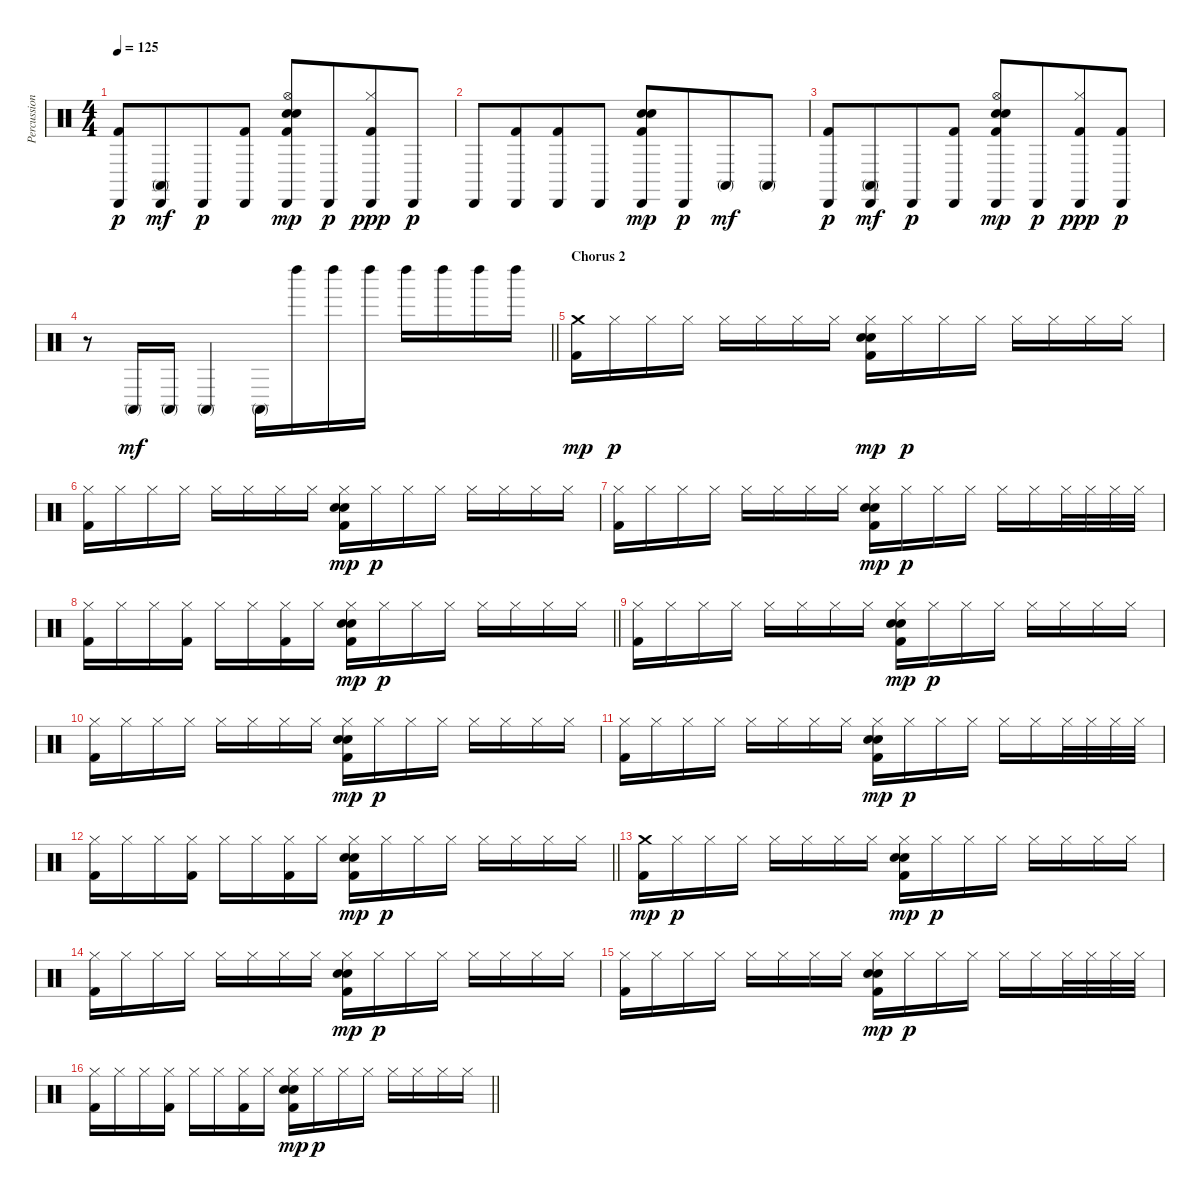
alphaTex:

\track ("Percussion" "Percussion") {instrument percussion}
\staff {score}
\articulation defaults
\ts (4 4)
\tempo 125
\clef neutral
\ks c
("Cabasa (hit)" "Kick (hit) 2").8{dy p} ("Cabasa (hit)" "Conga high (mute)").8{dy mf beam merge} "Cabasa (hit)".8{dy p} ("Cabasa (hit)" "Kick (hit) 2").8 ("Cabasa (hit)" "Hi-Hat (open)" "Hand Clap (hit)" "Electric Snare (hit)" "Kick (hit) 2").8{dy mp} "Cabasa (hit)".8{dy p beam merge} ("Cabasa (hit)" "Hi-Hat (closed)" "Kick (hit) 2").8{dy ppp} "Cabasa (hit)".8{dy p} |
"Cabasa (hit)".8 ("Cabasa (hit)" "Kick (hit) 2").8{beam merge} ("Cabasa (hit)" "Kick (hit) 2").8 "Cabasa (hit)".8 ("Cabasa (hit)" "Hand Clap (hit)" "Electric Snare (hit)" "Kick (hit) 2").8{dy mp} "Cabasa (hit)".8{dy p beam merge} "Conga high (mute)".8{dy mf} "Conga high (mute)".8 |
("Cabasa (hit)" "Kick (hit) 2").8{dy p} ("Cabasa (hit)" "Conga high (mute)").8{dy mf beam merge} "Cabasa (hit)".8{dy p} ("Cabasa (hit)" "Kick (hit) 2").8 ("Cabasa (hit)" "Hi-Hat (open)" "Hand Clap (hit)" "Electric Snare (hit)" "Kick (hit) 2").8{dy mp} "Cabasa (hit)".8{dy p beam merge} ("Cabasa (hit)" "Hi-Hat (closed)" "Kick (hit) 2").8{dy ppp} ("Cabasa (hit)" "Kick (hit) 2").8{dy p} |
\barLineRight lightlight
r.8 "Conga high (mute)".16{dy mf} "Conga high (mute)".16 "Conga high (mute)".4 "Conga high (mute)".16 "Left Maraca (hit)".16 "Left Maraca (hit)".16 "Left Maraca (hit)".16 "Left Maraca (hit)".16 "Left Maraca (hit)".16 "Left Maraca (hit)".16 "Left Maraca (hit)".16 |
\section ("" "Chorus 2")
("Crash medium (hit)" "Kick (hit) 2").16{dy mp} "Hi-Hat (closed)".16{dy p} "Hi-Hat (closed)".16 "Hi-Hat (closed)".16 "Hi-Hat (closed)".16 "Hi-Hat (closed)".16 "Hi-Hat (closed)".16 "Hi-Hat (closed)".16 ("Hi-Hat (closed)" "Hand Clap (hit)" "Electric Snare (hit)" "Kick (hit) 2").16{dy mp} "Hi-Hat (closed)".16{dy p} "Hi-Hat (closed)".16 "Hi-Hat (closed)".16 "Hi-Hat (closed)".16 "Hi-Hat (closed)".16 "Hi-Hat (closed)".16 "Hi-Hat (closed)".16 |
("Hi-Hat (closed)" "Kick (hit) 2").16 "Hi-Hat (closed)".16 "Hi-Hat (closed)".16 "Hi-Hat (closed)".16 "Hi-Hat (closed)".16 "Hi-Hat (closed)".16 "Hi-Hat (closed)".16 "Hi-Hat (closed)".16 ("Hi-Hat (closed)" "Hand Clap (hit)" "Electric Snare (hit)" "Kick (hit) 2").16{dy mp} "Hi-Hat (closed)".16{dy p} "Hi-Hat (closed)".16 "Hi-Hat (closed)".16 "Hi-Hat (closed)".16 "Hi-Hat (closed)".16 "Hi-Hat (closed)".16 "Hi-Hat (closed)".16 |
("Hi-Hat (closed)" "Kick (hit) 2").16 "Hi-Hat (closed)".16 "Hi-Hat (closed)".16 "Hi-Hat (closed)".16 "Hi-Hat (closed)".16 "Hi-Hat (closed)".16 "Hi-Hat (closed)".16 "Hi-Hat (closed)".16 ("Hi-Hat (closed)" "Hand Clap (hit)" "Electric Snare (hit)" "Kick (hit) 2").16{dy mp} "Hi-Hat (closed)".16{dy p} "Hi-Hat (closed)".16 "Hi-Hat (closed)".16 "Hi-Hat (closed)".16 "Hi-Hat (closed)".16 "Hi-Hat (closed)".32 "Hi-Hat (closed)".32 "Hi-Hat (closed)".32 "Hi-Hat (closed)".32 |
\barLineRight lightlight
("Hi-Hat (closed)" "Kick (hit) 2").16 "Hi-Hat (closed)".16 "Hi-Hat (closed)".16 ("Hi-Hat (closed)" "Kick (hit) 2").16 "Hi-Hat (closed)".16 "Hi-Hat (closed)".16 ("Hi-Hat (closed)" "Kick (hit) 2").16 "Hi-Hat (closed)".16 ("Hi-Hat (closed)" "Hand Clap (hit)" "Electric Snare (hit)" "Kick (hit) 2").16{dy mp} "Hi-Hat (closed)".16{dy p} "Hi-Hat (closed)".16 "Hi-Hat (closed)".16 "Hi-Hat (closed)".16 "Hi-Hat (closed)".16 "Hi-Hat (closed)".16 "Hi-Hat (closed)".16 |
("Hi-Hat (closed)" "Kick (hit) 2").16 "Hi-Hat (closed)".16 "Hi-Hat (closed)".16 "Hi-Hat (closed)".16 "Hi-Hat (closed)".16 "Hi-Hat (closed)".16 "Hi-Hat (closed)".16 "Hi-Hat (closed)".16 ("Hi-Hat (closed)" "Hand Clap (hit)" "Electric Snare (hit)" "Kick (hit) 2").16{dy mp} "Hi-Hat (closed)".16{dy p} "Hi-Hat (closed)".16 "Hi-Hat (closed)".16 "Hi-Hat (closed)".16 "Hi-Hat (closed)".16 "Hi-Hat (closed)".16 "Hi-Hat (closed)".16 |
("Hi-Hat (closed)" "Kick (hit) 2").16 "Hi-Hat (closed)".16 "Hi-Hat (closed)".16 "Hi-Hat (closed)".16 "Hi-Hat (closed)".16 "Hi-Hat (closed)".16 "Hi-Hat (closed)".16 "Hi-Hat (closed)".16 ("Hi-Hat (closed)" "Hand Clap (hit)" "Electric Snare (hit)" "Kick (hit) 2").16{dy mp} "Hi-Hat (closed)".16{dy p} "Hi-Hat (closed)".16 "Hi-Hat (closed)".16 "Hi-Hat (closed)".16 "Hi-Hat (closed)".16 "Hi-Hat (closed)".16 "Hi-Hat (closed)".16 |
("Hi-Hat (closed)" "Kick (hit) 2").16 "Hi-Hat (closed)".16 "Hi-Hat (closed)".16 "Hi-Hat (closed)".16 "Hi-Hat (closed)".16 "Hi-Hat (closed)".16 "Hi-Hat (closed)".16 "Hi-Hat (closed)".16 ("Hi-Hat (closed)" "Hand Clap (hit)" "Electric Snare (hit)" "Kick (hit) 2").16{dy mp} "Hi-Hat (closed)".16{dy p} "Hi-Hat (closed)".16 "Hi-Hat (closed)".16 "Hi-Hat (closed)".16 "Hi-Hat (closed)".16 "Hi-Hat (closed)".32 "Hi-Hat (closed)".32 "Hi-Hat (closed)".32 "Hi-Hat (closed)".32 |
\barLineRight lightlight
("Hi-Hat (closed)" "Kick (hit) 2").16 "Hi-Hat (closed)".16 "Hi-Hat (closed)".16 ("Hi-Hat (closed)" "Kick (hit) 2").16 "Hi-Hat (closed)".16 "Hi-Hat (closed)".16 ("Hi-Hat (closed)" "Kick (hit) 2").16 "Hi-Hat (closed)".16 ("Hi-Hat (closed)" "Hand Clap (hit)" "Electric Snare (hit)" "Kick (hit) 2").16{dy mp} "Hi-Hat (closed)".16{dy p} "Hi-Hat (closed)".16 "Hi-Hat (closed)".16 "Hi-Hat (closed)".16 "Hi-Hat (closed)".16 "Hi-Hat (closed)".16 "Hi-Hat (closed)".16 |
\section ("" "")
("Crash medium (hit)" "Kick (hit) 2").16{dy mp} "Hi-Hat (closed)".16{dy p} "Hi-Hat (closed)".16 "Hi-Hat (closed)".16 "Hi-Hat (closed)".16 "Hi-Hat (closed)".16 "Hi-Hat (closed)".16 "Hi-Hat (closed)".16 ("Hi-Hat (closed)" "Hand Clap (hit)" "Electric Snare (hit)" "Kick (hit) 2").16{dy mp} "Hi-Hat (closed)".16{dy p} "Hi-Hat (closed)".16 "Hi-Hat (closed)".16 "Hi-Hat (closed)".16 "Hi-Hat (closed)".16 "Hi-Hat (closed)".16 "Hi-Hat (closed)".16 |
("Hi-Hat (closed)" "Kick (hit) 2").16 "Hi-Hat (closed)".16 "Hi-Hat (closed)".16 "Hi-Hat (closed)".16 "Hi-Hat (closed)".16 "Hi-Hat (closed)".16 "Hi-Hat (closed)".16 "Hi-Hat (closed)".16 ("Hi-Hat (closed)" "Hand Clap (hit)" "Electric Snare (hit)" "Kick (hit) 2").16{dy mp} "Hi-Hat (closed)".16{dy p} "Hi-Hat (closed)".16 "Hi-Hat (closed)".16 "Hi-Hat (closed)".16 "Hi-Hat (closed)".16 "Hi-Hat (closed)".16 "Hi-Hat (closed)".16 |
("Hi-Hat (closed)" "Kick (hit) 2").16 "Hi-Hat (closed)".16 "Hi-Hat (closed)".16 "Hi-Hat (closed)".16 "Hi-Hat (closed)".16 "Hi-Hat (closed)".16 "Hi-Hat (closed)".16 "Hi-Hat (closed)".16 ("Hi-Hat (closed)" "Hand Clap (hit)" "Electric Snare (hit)" "Kick (hit) 2").16{dy mp} "Hi-Hat (closed)".16{dy p} "Hi-Hat (closed)".16 "Hi-Hat (closed)".16 "Hi-Hat (closed)".16 "Hi-Hat (closed)".16 "Hi-Hat (closed)".32 "Hi-Hat (closed)".32 "Hi-Hat (closed)".32 "Hi-Hat (closed)".32 |
\barLineRight lightlight
("Hi-Hat (closed)" "Kick (hit) 2").16 "Hi-Hat (closed)".16 "Hi-Hat (closed)".16 ("Hi-Hat (closed)" "Kick (hit) 2").16 "Hi-Hat (closed)".16 "Hi-Hat (closed)".16 ("Hi-Hat (closed)" "Kick (hit) 2").16 "Hi-Hat (closed)".16 ("Hi-Hat (closed)" "Hand Clap (hit)" "Electric Snare (hit)" "Kick (hit) 2").16{dy mp} "Hi-Hat (closed)".16{dy p} "Hi-Hat (closed)".16 "Hi-Hat (closed)".16 "Hi-Hat (closed)".16 "Hi-Hat (closed)".16 "Hi-Hat (closed)".16 "Hi-Hat (closed)".16
